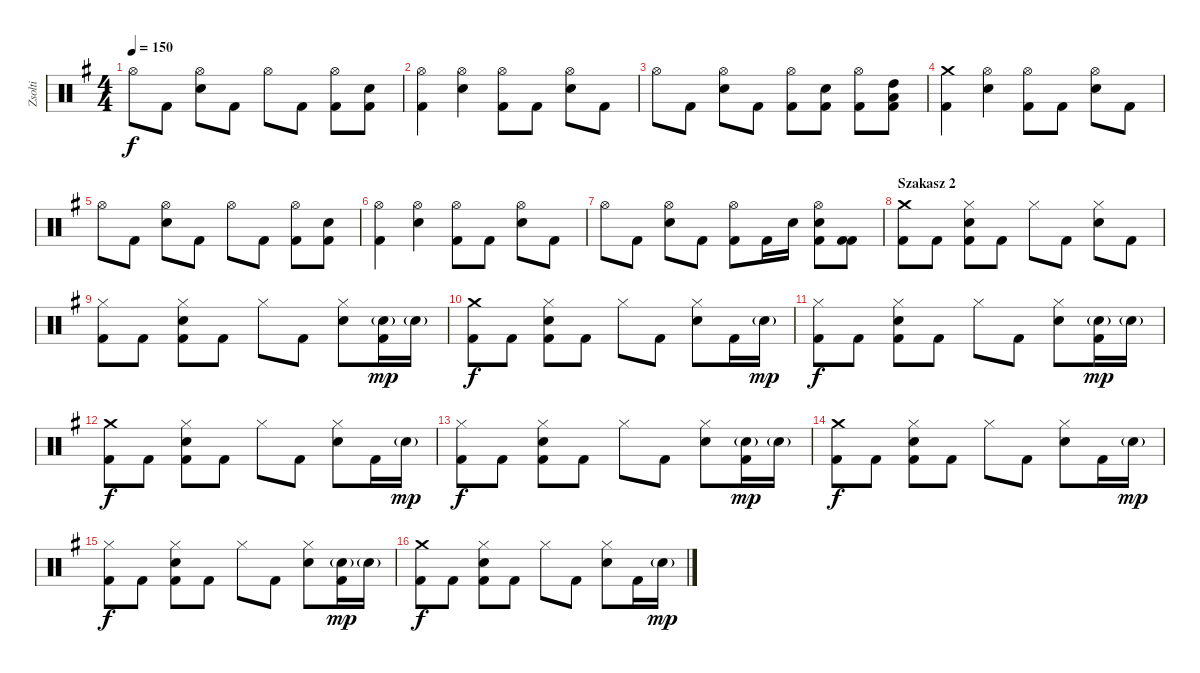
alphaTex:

\track ("Zsolti" "Zsolti") {instrument percussion}
\staff {score}
\articulation defaults
\ts (4 4)
\tempo 150
\clef neutral
\ks eminor "Hi-Hat (open)".8{dy f} "Kick (hit) 2".8
("Hi-Hat (open)" "Snare (hit) 2").8 "Kick (hit) 2".8 "Hi-Hat (open)".8 "Kick (hit) 2".8 ("Hi-Hat (open)" "Kick (hit) 2").8 ("Snare (hit) 2" "Kick (hit) 2").8 |
("Hi-Hat (open)" "Kick (hit) 2").4 ("Hi-Hat (open)" "Snare (hit) 2").4 ("Hi-Hat (open)" "Kick (hit) 2").8 "Kick (hit) 2".8 ("Hi-Hat (open)" "Snare (hit) 2").8 "Kick (hit) 2".8 |
"Hi-Hat (open)".8 "Kick (hit) 2".8 ("Hi-Hat (open)" "Snare (hit) 2").8 "Kick (hit) 2".8 ("Hi-Hat (open)" "Kick (hit) 2").8 ("Snare (hit) 2" "Kick (hit) 2").8 ("Hi-Hat (open)" "Kick (hit) 2").8 ("High Tom (hit)" "Low Tom (hit)" "Kick (hit) 2").8 |
("Crash medium (hit)" "Kick (hit) 2").4 ("Hi-Hat (open)" "Snare (hit) 2").4 ("Hi-Hat (open)" "Kick (hit) 2").8 "Kick (hit) 2".8 ("Hi-Hat (open)" "Snare (hit) 2").8 "Kick (hit) 2".8 |
"Hi-Hat (open)".8 "Kick (hit) 2".8 ("Hi-Hat (open)" "Snare (hit) 2").8 "Kick (hit) 2".8 "Hi-Hat (open)".8 "Kick (hit) 2".8 ("Hi-Hat (open)" "Kick (hit) 2").8 ("Snare (hit) 2" "Kick (hit) 2").8 |
("Hi-Hat (open)" "Kick (hit) 2").4 ("Hi-Hat (open)" "Snare (hit) 2").4 ("Hi-Hat (open)" "Kick (hit) 2").8 "Kick (hit) 2".8 ("Hi-Hat (open)" "Snare (hit) 2").8 "Kick (hit) 2".8 |
"Hi-Hat (open)".8 "Kick (hit) 2".8 ("Hi-Hat (open)" "Snare (hit) 2").8 "Kick (hit) 2".8 ("Hi-Hat (open)" "Kick (hit) 2").8 "Kick (hit) 2".16 "Snare (hit) 2".16 ("Hi-Hat (open)" "Snare (hit) 2" "Kick (hit) 2").8 ("Kick (hit) 2" "Kick (hit) 2").8 |
\section ("" "Szakasz 2")
("Crash medium (hit)" "Kick (hit) 2").8 "Kick (hit) 2".8 ("Hi-Hat (closed)" "Snare (hit) 2" "Kick (hit) 2").8 "Kick (hit) 2".8 "Hi-Hat (closed)".8 "Kick (hit) 2".8 ("Hi-Hat (closed)" "Snare (hit) 2").8 "Kick (hit) 2".8 |
("Hi-Hat (closed)" "Kick (hit) 2").8 "Kick (hit) 2".8 ("Hi-Hat (closed)" "Snare (hit) 2" "Kick (hit) 2").8 "Kick (hit) 2".8 "Hi-Hat (closed)".8 "Kick (hit) 2".8 ("Hi-Hat (closed)" "Snare (hit) 2").8 ("Snare (hit) 2"{g} "Kick (hit) 2").16{dy mp} "Snare (hit) 2"{g}.16 |
("Crash medium (hit)" "Kick (hit) 2").8{dy f} "Kick (hit) 2".8 ("Hi-Hat (closed)" "Snare (hit) 2" "Kick (hit) 2").8 "Kick (hit) 2".8 "Hi-Hat (closed)".8 "Kick (hit) 2".8 ("Hi-Hat (closed)" "Snare (hit) 2").8 "Kick (hit) 2".16 "Snare (hit) 2"{g}.16{dy mp} |
("Hi-Hat (closed)" "Kick (hit) 2").8{dy f} "Kick (hit) 2".8 ("Hi-Hat (closed)" "Snare (hit) 2" "Kick (hit) 2").8 "Kick (hit) 2".8 "Hi-Hat (closed)".8 "Kick (hit) 2".8 ("Hi-Hat (closed)" "Snare (hit) 2").8 ("Snare (hit) 2"{g} "Kick (hit) 2").16{dy mp} "Snare (hit) 2"{g}.16 |
("Crash medium (hit)" "Kick (hit) 2").8{dy f} "Kick (hit) 2".8 ("Hi-Hat (closed)" "Snare (hit) 2" "Kick (hit) 2").8 "Kick (hit) 2".8 "Hi-Hat (closed)".8 "Kick (hit) 2".8 ("Hi-Hat (closed)" "Snare (hit) 2").8 "Kick (hit) 2".16 "Snare (hit) 2"{g}.16{dy mp} |
("Hi-Hat (closed)" "Kick (hit) 2").8{dy f} "Kick (hit) 2".8 ("Hi-Hat (closed)" "Snare (hit) 2" "Kick (hit) 2").8 "Kick (hit) 2".8 "Hi-Hat (closed)".8 "Kick (hit) 2".8 ("Hi-Hat (closed)" "Snare (hit) 2").8 ("Snare (hit) 2"{g} "Kick (hit) 2").16{dy mp} "Snare (hit) 2"{g}.16 |
("Crash medium (hit)" "Kick (hit) 2").8{dy f} "Kick (hit) 2".8 ("Hi-Hat (closed)" "Snare (hit) 2" "Kick (hit) 2").8 "Kick (hit) 2".8 "Hi-Hat (closed)".8 "Kick (hit) 2".8 ("Hi-Hat (closed)" "Snare (hit) 2").8 "Kick (hit) 2".16 "Snare (hit) 2"{g}.16{dy mp} |
("Hi-Hat (closed)" "Kick (hit) 2").8{dy f} "Kick (hit) 2".8 ("Hi-Hat (closed)" "Snare (hit) 2" "Kick (hit) 2").8 "Kick (hit) 2".8 "Hi-Hat (closed)".8 "Kick (hit) 2".8 ("Hi-Hat (closed)" "Snare (hit) 2").8 ("Snare (hit) 2"{g} "Kick (hit) 2").16{dy mp} "Snare (hit) 2"{g}.16 |
("Crash medium (hit)" "Kick (hit) 2").8{dy f} "Kick (hit) 2".8 ("Hi-Hat (closed)" "Snare (hit) 2" "Kick (hit) 2").8 "Kick (hit) 2".8 "Hi-Hat (closed)".8 "Kick (hit) 2".8 ("Hi-Hat (closed)" "Snare (hit) 2").8 "Kick (hit) 2".16 "Snare (hit) 2"{g}.16{dy mp}
